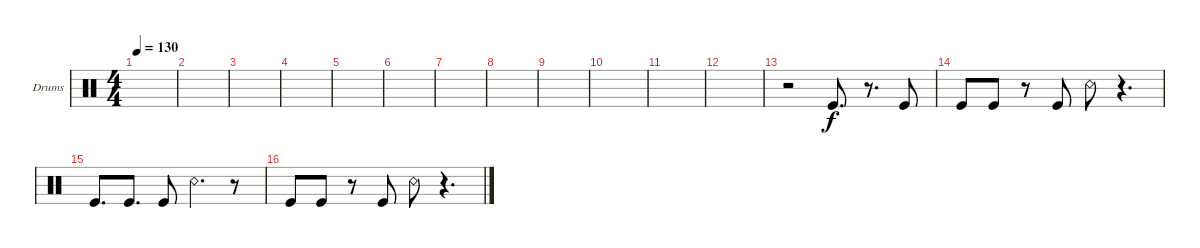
\defaultSystemsLayout 4
\bracketExtendMode groupsimilarinstruments
\firstSystemTrackNameOrientation horizontal
\otherSystemsTrackNameOrientation horizontal
\track ("Drumkit" "Drums") {instrument percussion}
\staff {score}
\articulation defaults
\ts (4 4)
\tempo 130
\clef neutral
\ks c
|
|
|
|
|
|
|
|
|
|
|
|
r.2 "Kick (hit)".8{d} r.8{d} "Kick (hit)".8 |
"Kick (hit)".8 "Kick (hit)".8 r.8 "Kick (hit)".8 "Snare (rim shot)".8 r.4{d} |
"Kick (hit)".8{d} "Kick (hit)".8{d} "Kick (hit)".8 "Snare (rim shot)".4{d} r.8 |
"Kick (hit)".8 "Kick (hit)".8 r.8 "Kick (hit)".8 "Snare (rim shot)".8 r.4{d}
